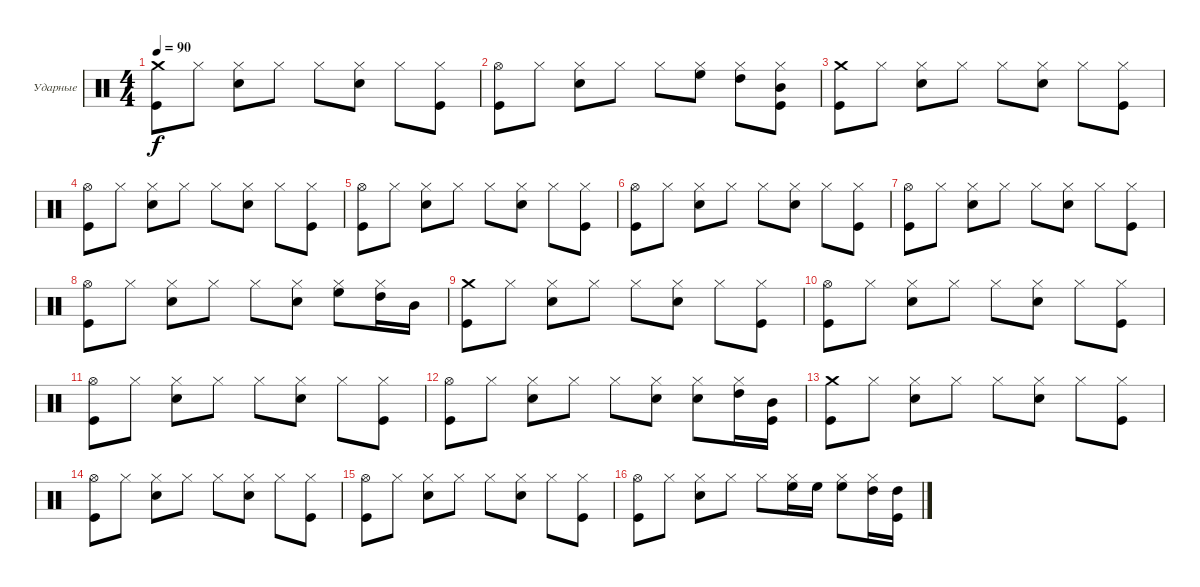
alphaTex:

\defaultSystemsLayout 4
\bracketExtendMode groupsimilarinstruments
\firstSystemTrackNameOrientation horizontal
\otherSystemsTrackNameOrientation horizontal
\track ("Drums" "Ударные") {instrument percussion}
\staff {score}
\articulation defaults
\ts (4 4)
\tempo 90
\clef neutral
\ks c
("Crash medium (hit)" "Kick (hit)").8{dy f} "Hi-Hat (closed)".8 ("Hi-Hat (closed)" "Snare (hit) 2").8 "Hi-Hat (closed)".8 "Hi-Hat (closed)".8 ("Hi-Hat (closed)" "Snare (hit) 2").8 "Hi-Hat (closed)".8 ("Hi-Hat (closed)" "Kick (hit)").8 |
("Hi-Hat (open)" "Kick (hit)").8 "Hi-Hat (closed)".8 ("Hi-Hat (closed)" "Snare (hit) 2").8 "Hi-Hat (closed)".8 "Hi-Hat (closed)".8 ("Hi-Hat (closed)" "High Floor Tom (hit)").8 ("Hi-Hat (closed)" "High Tom (hit)").8 ("Hi-Hat (closed)" "Kick (hit)" "Mid Tom (hit)").8 |
("Crash medium (hit)" "Kick (hit)").8 "Hi-Hat (closed)".8 ("Hi-Hat (closed)" "Snare (hit) 2").8 "Hi-Hat (closed)".8 "Hi-Hat (closed)".8 ("Hi-Hat (closed)" "Snare (hit) 2").8 "Hi-Hat (closed)".8 ("Hi-Hat (closed)" "Kick (hit)").8 |
("Hi-Hat (open)" "Kick (hit)").8 "Hi-Hat (closed)".8 ("Hi-Hat (closed)" "Snare (hit) 2").8 "Hi-Hat (closed)".8 "Hi-Hat (closed)".8 ("Hi-Hat (closed)" "Snare (hit) 2").8 "Hi-Hat (closed)".8 ("Hi-Hat (closed)" "Kick (hit)").8 |
("Hi-Hat (open)" "Kick (hit)").8 "Hi-Hat (closed)".8 ("Hi-Hat (closed)" "Snare (hit) 2").8 "Hi-Hat (closed)".8 "Hi-Hat (closed)".8 ("Hi-Hat (closed)" "Snare (hit) 2").8 "Hi-Hat (closed)".8 ("Hi-Hat (closed)" "Kick (hit)").8 |
("Hi-Hat (open)" "Kick (hit)").8 "Hi-Hat (closed)".8 ("Hi-Hat (closed)" "Snare (hit) 2").8 "Hi-Hat (closed)".8 "Hi-Hat (closed)".8 ("Hi-Hat (closed)" "Snare (hit) 2").8 "Hi-Hat (closed)".8 ("Hi-Hat (closed)" "Kick (hit)").8 |
("Hi-Hat (open)" "Kick (hit)").8 "Hi-Hat (closed)".8 ("Hi-Hat (closed)" "Snare (hit) 2").8 "Hi-Hat (closed)".8 "Hi-Hat (closed)".8 ("Hi-Hat (closed)" "Snare (hit) 2").8 "Hi-Hat (closed)".8 ("Hi-Hat (closed)" "Kick (hit)").8 |
("Hi-Hat (open)" "Kick (hit)").8 "Hi-Hat (closed)".8 ("Hi-Hat (closed)" "Snare (hit) 2").8 "Hi-Hat (closed)".8 "Hi-Hat (closed)".8 ("Hi-Hat (closed)" "Snare (hit) 2").8 ("Hi-Hat (closed)" "High Floor Tom (hit)").8 ("Hi-Hat (closed)" "High Tom (hit)").16 "Mid Tom (hit)".16 |
("Crash medium (hit)" "Kick (hit)").8 "Hi-Hat (closed)".8 ("Hi-Hat (closed)" "Snare (hit) 2").8 "Hi-Hat (closed)".8 "Hi-Hat (closed)".8 ("Hi-Hat (closed)" "Snare (hit) 2").8 "Hi-Hat (closed)".8 ("Hi-Hat (closed)" "Kick (hit)").8 |
("Hi-Hat (open)" "Kick (hit)").8 "Hi-Hat (closed)".8 ("Hi-Hat (closed)" "Snare (hit) 2").8 "Hi-Hat (closed)".8 "Hi-Hat (closed)".8 ("Hi-Hat (closed)" "Snare (hit) 2").8 "Hi-Hat (closed)".8 ("Hi-Hat (closed)" "Kick (hit)").8 |
("Hi-Hat (open)" "Kick (hit)").8 "Hi-Hat (closed)".8 ("Hi-Hat (closed)" "Snare (hit) 2").8 "Hi-Hat (closed)".8 "Hi-Hat (closed)".8 ("Hi-Hat (closed)" "Snare (hit) 2").8 "Hi-Hat (closed)".8 ("Hi-Hat (closed)" "Kick (hit)").8 |
("Hi-Hat (open)" "Kick (hit)").8 "Hi-Hat (closed)".8 ("Hi-Hat (closed)" "Snare (hit) 2").8 "Hi-Hat (closed)".8 "Hi-Hat (closed)".8 ("Hi-Hat (closed)" "Snare (hit) 2").8 ("Hi-Hat (closed)" "Snare (hit) 2").8 ("Hi-Hat (closed)" "High Tom (hit)").16 ("Mid Tom (hit)" "Kick (hit)").16 |
("Crash medium (hit)" "Kick (hit)").8 "Hi-Hat (closed)".8 ("Hi-Hat (closed)" "Snare (hit) 2").8 "Hi-Hat (closed)".8 "Hi-Hat (closed)".8 ("Hi-Hat (closed)" "Snare (hit) 2").8 "Hi-Hat (closed)".8 ("Hi-Hat (closed)" "Kick (hit)").8 |
("Hi-Hat (open)" "Kick (hit)").8 "Hi-Hat (closed)".8 ("Hi-Hat (closed)" "Snare (hit) 2").8 "Hi-Hat (closed)".8 "Hi-Hat (closed)".8 ("Hi-Hat (closed)" "Snare (hit) 2").8 "Hi-Hat (closed)".8 ("Hi-Hat (closed)" "Kick (hit)").8 |
("Hi-Hat (open)" "Kick (hit)").8 "Hi-Hat (closed)".8 ("Hi-Hat (closed)" "Snare (hit) 2").8 "Hi-Hat (closed)".8 "Hi-Hat (closed)".8 ("Hi-Hat (closed)" "Snare (hit) 2").8 "Hi-Hat (closed)".8 ("Hi-Hat (closed)" "Kick (hit)").8 |
("Hi-Hat (open)" "Kick (hit)").8 "Hi-Hat (closed)".8 ("Hi-Hat (closed)" "Snare (hit) 2").8 "Hi-Hat (closed)".8 "Hi-Hat (closed)".8 ("Hi-Hat (closed)" "High Floor Tom (hit)").16 "High Floor Tom (hit)".16 ("Hi-Hat (closed)" "High Floor Tom (hit)").8 ("Hi-Hat (closed)" "High Tom (hit)").16 ("Kick (hit)" "High Tom (hit)").16
